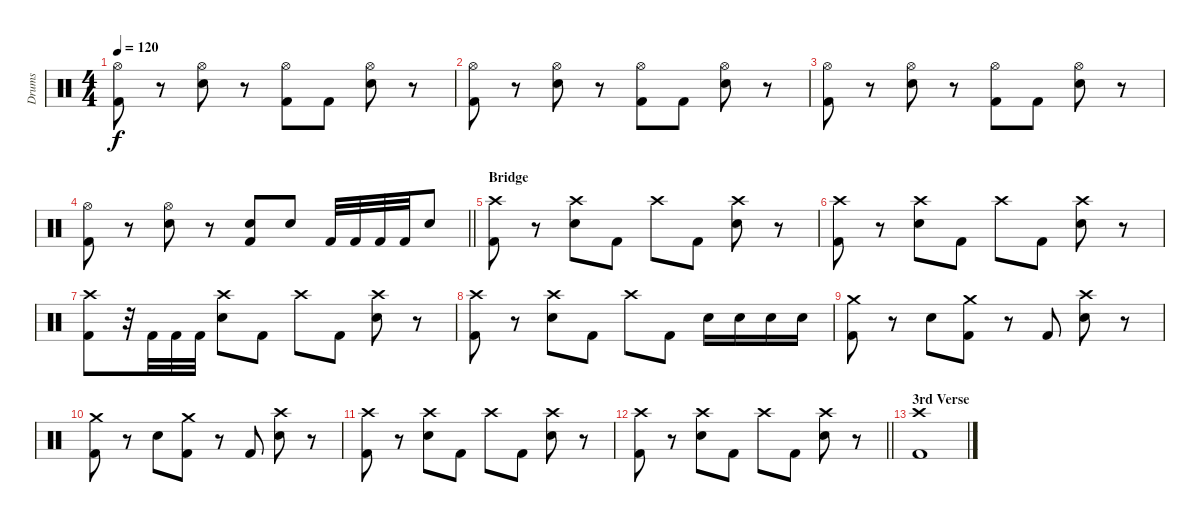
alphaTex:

\track ("Drums" "Drums") {instrument percussion}
\staff {score}
\articulation defaults
\ts (4 4)
\tempo 120
\clef neutral
\ks c
("Hi-Hat (open)" "Kick (hit) 2").8{dy f} r.8 ("Snare (hit) 2" "Hi-Hat (open)").8 r.8 ("Hi-Hat (open)" "Kick (hit) 2").8 "Kick (hit) 2".8 ("Snare (hit) 2" "Hi-Hat (open)").8 r.8 |
("Hi-Hat (open)" "Kick (hit) 2").8 r.8 ("Snare (hit) 2" "Hi-Hat (open)").8 r.8 ("Hi-Hat (open)" "Kick (hit) 2").8 "Kick (hit) 2".8 ("Snare (hit) 2" "Hi-Hat (open)").8 r.8 |
("Hi-Hat (open)" "Kick (hit) 2").8 r.8 ("Snare (hit) 2" "Hi-Hat (open)").8 r.8 ("Hi-Hat (open)" "Kick (hit) 2").8 "Kick (hit) 2".8 ("Snare (hit) 2" "Hi-Hat (open)").8 r.8 |
\barLineRight lightlight
("Hi-Hat (open)" "Kick (hit) 2").8 r.8 ("Snare (hit) 2" "Hi-Hat (open)").8 r.8 ("Snare (hit) 2" "Kick (hit) 2").8 "Snare (hit) 2".8 "Kick (hit) 2".32 "Kick (hit) 2".32 "Kick (hit) 2".32 "Kick (hit) 2".32 "Snare (hit) 2".8 |
\section ("" "Bridge")
("Crash high (hit)" "Kick (hit) 2").8 r.8 ("Crash high (hit)" "Snare (hit) 2").8 "Kick (hit) 2".8 "Crash high (hit)".8 "Kick (hit) 2".8 ("Crash high (hit)" "Snare (hit) 2").8 r.8 |
("Crash high (hit)" "Kick (hit) 2").8 r.8 ("Crash high (hit)" "Snare (hit) 2").8 "Kick (hit) 2".8 "Crash high (hit)".8 "Kick (hit) 2".8 ("Crash high (hit)" "Snare (hit) 2").8 r.8 |
("Crash high (hit)" "Kick (hit) 2").8 r.32 "Kick (hit) 2".32 "Kick (hit) 2".32 "Kick (hit) 2".32 ("Crash high (hit)" "Snare (hit) 2").8 "Kick (hit) 2".8 "Crash high (hit)".8 "Kick (hit) 2".8 ("Crash high (hit)" "Snare (hit) 2").8 r.8 |
("Crash high (hit)" "Kick (hit) 2").8 r.8 ("Crash high (hit)" "Snare (hit) 2").8 "Kick (hit) 2".8 "Crash high (hit)".8 "Kick (hit) 2".8 "Snare (hit) 2".16 "Snare (hit) 2".16 "Snare (hit) 2".16 "Snare (hit) 2".16 |
("Crash medium (hit)" "Kick (hit) 2").8 r.8 "Snare (hit) 2".8 ("Crash medium (hit)" "Kick (hit) 2").8 r.8 "Kick (hit) 2".8 ("Crash high (hit)" "Snare (hit) 2").8 r.8 |
("Crash medium (hit)" "Kick (hit) 2").8 r.8 "Snare (hit) 2".8 ("Crash medium (hit)" "Kick (hit) 2").8 r.8 "Kick (hit) 2".8 ("Crash high (hit)" "Snare (hit) 2").8 r.8 |
("Crash high (hit)" "Kick (hit) 2").8 r.8 ("Crash high (hit)" "Snare (hit) 2").8 "Kick (hit) 2".8 "Crash high (hit)".8 "Kick (hit) 2".8 ("Crash high (hit)" "Snare (hit) 2").8 r.8 |
\barLineRight lightlight
("Crash high (hit)" "Kick (hit) 2").8 r.8 ("Crash high (hit)" "Snare (hit) 2").8 "Kick (hit) 2".8 "Crash high (hit)".8 "Kick (hit) 2".8 ("Crash high (hit)" "Snare (hit) 2").8 r.8 |
\section ("" "3rd Verse")
("Crash high (hit)" "Kick (hit) 2").1
